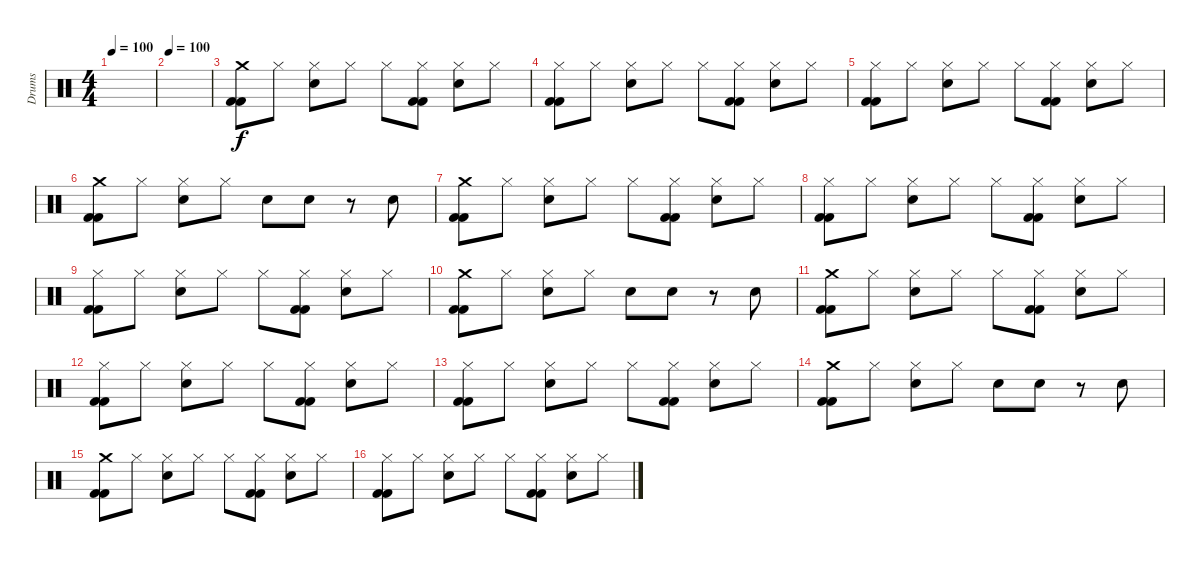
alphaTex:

\track ("Drums" "Drums") {instrument percussion}
\staff {score}
\articulation defaults
\ts (4 4)
\tempo 100
\clef neutral
\ks c
|
\tempo 100
|
("Crash medium (hit)" "Kick (hit) 2" "Kick (hit) 2").8 "Hi-Hat (closed)".8 ("Electric Snare (hit)" "Hi-Hat (closed)").8 "Hi-Hat (closed)".8 "Hi-Hat (closed)".8 ("Kick (hit) 2" "Kick (hit) 2" "Hi-Hat (closed)").8 ("Hi-Hat (closed)" "Electric Snare (hit)").8 "Hi-Hat (closed)".8 |
("Hi-Hat (closed)" "Kick (hit) 2" "Kick (hit) 2").8 "Hi-Hat (closed)".8 ("Electric Snare (hit)" "Hi-Hat (closed)").8 "Hi-Hat (closed)".8 "Hi-Hat (closed)".8 ("Kick (hit) 2" "Kick (hit) 2" "Hi-Hat (closed)").8 ("Hi-Hat (closed)" "Electric Snare (hit)").8 "Hi-Hat (closed)".8 |
("Hi-Hat (closed)" "Kick (hit) 2" "Kick (hit) 2").8 "Hi-Hat (closed)".8 ("Electric Snare (hit)" "Hi-Hat (closed)").8 "Hi-Hat (closed)".8 "Hi-Hat (closed)".8 ("Kick (hit) 2" "Kick (hit) 2" "Hi-Hat (closed)").8 ("Hi-Hat (closed)" "Electric Snare (hit)").8 "Hi-Hat (closed)".8 |
("Crash medium (hit)" "Kick (hit) 2" "Kick (hit) 2").8 "Hi-Hat (closed)".8 ("Electric Snare (hit)" "Hi-Hat (closed)").8 "Hi-Hat (closed)".8 "Electric Snare (hit)".8 "Electric Snare (hit)".8 r.8 "Electric Snare (hit)".8 |
("Crash medium (hit)" "Kick (hit) 2" "Kick (hit) 2").8 "Hi-Hat (closed)".8 ("Electric Snare (hit)" "Hi-Hat (closed)").8 "Hi-Hat (closed)".8 "Hi-Hat (closed)".8 ("Kick (hit) 2" "Kick (hit) 2" "Hi-Hat (closed)").8 ("Hi-Hat (closed)" "Electric Snare (hit)").8 "Hi-Hat (closed)".8 |
("Hi-Hat (closed)" "Kick (hit) 2" "Kick (hit) 2").8 "Hi-Hat (closed)".8 ("Electric Snare (hit)" "Hi-Hat (closed)").8 "Hi-Hat (closed)".8 "Hi-Hat (closed)".8 ("Kick (hit) 2" "Kick (hit) 2" "Hi-Hat (closed)").8 ("Hi-Hat (closed)" "Electric Snare (hit)").8 "Hi-Hat (closed)".8 |
("Hi-Hat (closed)" "Kick (hit) 2" "Kick (hit) 2").8 "Hi-Hat (closed)".8 ("Electric Snare (hit)" "Hi-Hat (closed)").8 "Hi-Hat (closed)".8 "Hi-Hat (closed)".8 ("Kick (hit) 2" "Kick (hit) 2" "Hi-Hat (closed)").8 ("Hi-Hat (closed)" "Electric Snare (hit)").8 "Hi-Hat (closed)".8 |
("Crash medium (hit)" "Kick (hit) 2" "Kick (hit) 2").8 "Hi-Hat (closed)".8 ("Electric Snare (hit)" "Hi-Hat (closed)").8 "Hi-Hat (closed)".8 "Electric Snare (hit)".8 "Electric Snare (hit)".8 r.8 "Electric Snare (hit)".8 |
("Crash medium (hit)" "Kick (hit) 2" "Kick (hit) 2").8 "Hi-Hat (closed)".8 ("Electric Snare (hit)" "Hi-Hat (closed)").8 "Hi-Hat (closed)".8 "Hi-Hat (closed)".8 ("Kick (hit) 2" "Kick (hit) 2" "Hi-Hat (closed)").8 ("Hi-Hat (closed)" "Electric Snare (hit)").8 "Hi-Hat (closed)".8 |
("Hi-Hat (closed)" "Kick (hit) 2" "Kick (hit) 2").8 "Hi-Hat (closed)".8 ("Electric Snare (hit)" "Hi-Hat (closed)").8 "Hi-Hat (closed)".8 "Hi-Hat (closed)".8 ("Kick (hit) 2" "Kick (hit) 2" "Hi-Hat (closed)").8 ("Hi-Hat (closed)" "Electric Snare (hit)").8 "Hi-Hat (closed)".8 |
("Hi-Hat (closed)" "Kick (hit) 2" "Kick (hit) 2").8 "Hi-Hat (closed)".8 ("Electric Snare (hit)" "Hi-Hat (closed)").8 "Hi-Hat (closed)".8 "Hi-Hat (closed)".8 ("Kick (hit) 2" "Kick (hit) 2" "Hi-Hat (closed)").8 ("Hi-Hat (closed)" "Electric Snare (hit)").8 "Hi-Hat (closed)".8 |
("Crash medium (hit)" "Kick (hit) 2" "Kick (hit) 2").8 "Hi-Hat (closed)".8 ("Electric Snare (hit)" "Hi-Hat (closed)").8 "Hi-Hat (closed)".8 "Electric Snare (hit)".8 "Electric Snare (hit)".8 r.8 "Electric Snare (hit)".8 |
("Crash medium (hit)" "Kick (hit) 2" "Kick (hit) 2").8 "Hi-Hat (closed)".8 ("Electric Snare (hit)" "Hi-Hat (closed)").8 "Hi-Hat (closed)".8 "Hi-Hat (closed)".8 ("Kick (hit) 2" "Kick (hit) 2" "Hi-Hat (closed)").8 ("Hi-Hat (closed)" "Electric Snare (hit)").8 "Hi-Hat (closed)".8 |
("Hi-Hat (closed)" "Kick (hit) 2" "Kick (hit) 2").8 "Hi-Hat (closed)".8 ("Electric Snare (hit)" "Hi-Hat (closed)").8 "Hi-Hat (closed)".8 "Hi-Hat (closed)".8 ("Kick (hit) 2" "Kick (hit) 2" "Hi-Hat (closed)").8 ("Hi-Hat (closed)" "Electric Snare (hit)").8 "Hi-Hat (closed)".8
